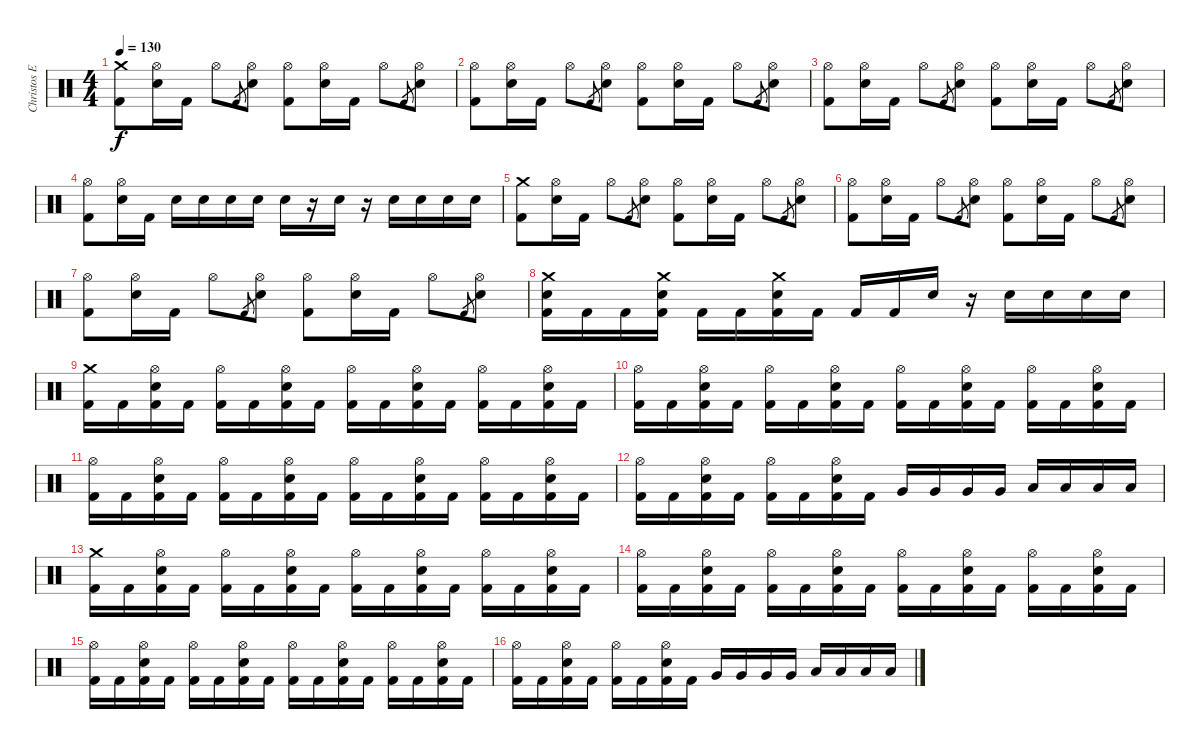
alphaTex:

\track ("Christos Efthimiadis" "Christos E") {instrument percussion}
\staff {score}
\articulation defaults
\ts (4 4)
\tempo 130
\clef neutral
\ks c
("Crash medium (hit)" "Kick (hit) 2").8{dy f} ("Hi-Hat (open)" "Snare (hit) 2").16 "Kick (hit) 2".16 "Hi-Hat (open)".8 "Kick (hit) 2".8{gr} ("Hi-Hat (open)" "Snare (hit) 2").8 ("Hi-Hat (open)" "Kick (hit) 2").8 ("Hi-Hat (open)" "Snare (hit) 2").16 "Kick (hit) 2".16 "Hi-Hat (open)".8 "Kick (hit) 2".8{gr} ("Hi-Hat (open)" "Snare (hit) 2").8 |
("Hi-Hat (open)" "Kick (hit) 2").8 ("Hi-Hat (open)" "Snare (hit) 2").16 "Kick (hit) 2".16 "Hi-Hat (open)".8 "Kick (hit) 2".8{gr} ("Hi-Hat (open)" "Snare (hit) 2").8 ("Hi-Hat (open)" "Kick (hit) 2").8 ("Hi-Hat (open)" "Snare (hit) 2").16 "Kick (hit) 2".16 "Hi-Hat (open)".8 "Kick (hit) 2".8{gr} ("Hi-Hat (open)" "Snare (hit) 2").8 |
("Hi-Hat (open)" "Kick (hit) 2").8 ("Hi-Hat (open)" "Snare (hit) 2").16 "Kick (hit) 2".16 "Hi-Hat (open)".8 "Kick (hit) 2".8{gr} ("Hi-Hat (open)" "Snare (hit) 2").8 ("Hi-Hat (open)" "Kick (hit) 2").8 ("Hi-Hat (open)" "Snare (hit) 2").16 "Kick (hit) 2".16 "Hi-Hat (open)".8 "Kick (hit) 2".8{gr} ("Hi-Hat (open)" "Snare (hit) 2").8 |
("Hi-Hat (open)" "Kick (hit) 2").8 ("Hi-Hat (open)" "Snare (hit) 2").16 "Kick (hit) 2".16 "Snare (hit) 2".16 "Snare (hit) 2".16 "Snare (hit) 2".16 "Snare (hit) 2".16 "Snare (hit) 2".16 r.16 "Snare (hit) 2".16 r.16 "Snare (hit) 2".16 "Snare (hit) 2".16 "Snare (hit) 2".16 "Snare (hit) 2".16 |
("Crash medium (hit)" "Kick (hit) 2").8 ("Hi-Hat (open)" "Snare (hit) 2").16 "Kick (hit) 2".16 "Hi-Hat (open)".8 "Kick (hit) 2".8{gr} ("Hi-Hat (open)" "Snare (hit) 2").8 ("Hi-Hat (open)" "Kick (hit) 2").8 ("Hi-Hat (open)" "Snare (hit) 2").16 "Kick (hit) 2".16 "Hi-Hat (open)".8 "Kick (hit) 2".8{gr} ("Hi-Hat (open)" "Snare (hit) 2").8 |
("Hi-Hat (open)" "Kick (hit) 2").8 ("Hi-Hat (open)" "Snare (hit) 2").16 "Kick (hit) 2".16 "Hi-Hat (open)".8 "Kick (hit) 2".8{gr} ("Hi-Hat (open)" "Snare (hit) 2").8 ("Hi-Hat (open)" "Kick (hit) 2").8 ("Hi-Hat (open)" "Snare (hit) 2").16 "Kick (hit) 2".16 "Hi-Hat (open)".8 "Kick (hit) 2".8{gr} ("Hi-Hat (open)" "Snare (hit) 2").8 |
("Hi-Hat (open)" "Kick (hit) 2").8 ("Hi-Hat (open)" "Snare (hit) 2").16 "Kick (hit) 2".16 "Hi-Hat (open)".8 "Kick (hit) 2".8{gr} ("Hi-Hat (open)" "Snare (hit) 2").8 ("Hi-Hat (open)" "Kick (hit) 2").8 ("Hi-Hat (open)" "Snare (hit) 2").16 "Kick (hit) 2".16 "Hi-Hat (open)".8 "Kick (hit) 2".8{gr} ("Hi-Hat (open)" "Snare (hit) 2").8 |
("Crash medium (hit)" "Snare (hit) 2" "Kick (hit) 2").16 "Kick (hit) 2".16 "Kick (hit) 2".16 ("Crash medium (hit)" "Snare (hit) 2" "Kick (hit) 2").16 "Kick (hit) 2".16 "Kick (hit) 2".16 ("Crash medium (hit)" "Snare (hit) 2" "Kick (hit) 2").16 "Kick (hit) 2".16 "Kick (hit) 2".16 "Kick (hit) 2".16 "Snare (hit) 2".16 r.16 "Snare (hit) 2".16 "Snare (hit) 2".16 "Snare (hit) 2".16 "Snare (hit) 2".16 |
("Crash medium (hit)" "Kick (hit) 2").16 "Kick (hit) 2".16 ("Snare (hit) 2" "Hi-Hat (open)" "Kick (hit) 2").16 "Kick (hit) 2".16 ("Hi-Hat (open)" "Kick (hit) 2").16 "Kick (hit) 2".16 ("Snare (hit) 2" "Hi-Hat (open)" "Kick (hit) 2").16 "Kick (hit) 2".16 ("Hi-Hat (open)" "Kick (hit) 2").16 "Kick (hit) 2".16 ("Snare (hit) 2" "Hi-Hat (open)" "Kick (hit) 2").16 "Kick (hit) 2".16 ("Hi-Hat (open)" "Kick (hit) 2").16 "Kick (hit) 2".16 ("Snare (hit) 2" "Hi-Hat (open)" "Kick (hit) 2").16 "Kick (hit) 2".16 |
("Hi-Hat (open)" "Kick (hit) 2").16 "Kick (hit) 2".16 ("Snare (hit) 2" "Hi-Hat (open)" "Kick (hit) 2").16 "Kick (hit) 2".16 ("Hi-Hat (open)" "Kick (hit) 2").16 "Kick (hit) 2".16 ("Snare (hit) 2" "Hi-Hat (open)" "Kick (hit) 2").16 "Kick (hit) 2".16 ("Hi-Hat (open)" "Kick (hit) 2").16 "Kick (hit) 2".16 ("Snare (hit) 2" "Hi-Hat (open)" "Kick (hit) 2").16 "Kick (hit) 2".16 ("Hi-Hat (open)" "Kick (hit) 2").16 "Kick (hit) 2".16 ("Snare (hit) 2" "Hi-Hat (open)" "Kick (hit) 2").16 "Kick (hit) 2".16 |
("Hi-Hat (open)" "Kick (hit) 2").16 "Kick (hit) 2".16 ("Snare (hit) 2" "Hi-Hat (open)" "Kick (hit) 2").16 "Kick (hit) 2".16 ("Hi-Hat (open)" "Kick (hit) 2").16 "Kick (hit) 2".16 ("Snare (hit) 2" "Hi-Hat (open)" "Kick (hit) 2").16 "Kick (hit) 2".16 ("Hi-Hat (open)" "Kick (hit) 2").16 "Kick (hit) 2".16 ("Snare (hit) 2" "Hi-Hat (open)" "Kick (hit) 2").16 "Kick (hit) 2".16 ("Hi-Hat (open)" "Kick (hit) 2").16 "Kick (hit) 2".16 ("Snare (hit) 2" "Hi-Hat (open)" "Kick (hit) 2").16 "Kick (hit) 2".16 |
("Hi-Hat (open)" "Kick (hit) 2").16 "Kick (hit) 2".16 ("Snare (hit) 2" "Hi-Hat (open)" "Kick (hit) 2").16 "Kick (hit) 2".16 ("Hi-Hat (open)" "Kick (hit) 2").16 "Kick (hit) 2".16 ("Snare (hit) 2" "Hi-Hat (open)" "Kick (hit) 2").16 "Kick (hit) 2".16 "Very Low Tom (hit)".16 "Very Low Tom (hit)".16 "Very Low Tom (hit)".16 "Very Low Tom (hit)".16 "Low Floor Tom (hit)".16 "Low Floor Tom (hit)".16 "Low Floor Tom (hit)".16 "Low Floor Tom (hit)".16 |
("Crash medium (hit)" "Kick (hit) 2").16 "Kick (hit) 2".16 ("Snare (hit) 2" "Hi-Hat (open)" "Kick (hit) 2").16 "Kick (hit) 2".16 ("Hi-Hat (open)" "Kick (hit) 2").16 "Kick (hit) 2".16 ("Snare (hit) 2" "Hi-Hat (open)" "Kick (hit) 2").16 "Kick (hit) 2".16 ("Hi-Hat (open)" "Kick (hit) 2").16 "Kick (hit) 2".16 ("Snare (hit) 2" "Hi-Hat (open)" "Kick (hit) 2").16 "Kick (hit) 2".16 ("Hi-Hat (open)" "Kick (hit) 2").16 "Kick (hit) 2".16 ("Snare (hit) 2" "Hi-Hat (open)" "Kick (hit) 2").16 "Kick (hit) 2".16 |
("Hi-Hat (open)" "Kick (hit) 2").16 "Kick (hit) 2".16 ("Snare (hit) 2" "Hi-Hat (open)" "Kick (hit) 2").16 "Kick (hit) 2".16 ("Hi-Hat (open)" "Kick (hit) 2").16 "Kick (hit) 2".16 ("Snare (hit) 2" "Hi-Hat (open)" "Kick (hit) 2").16 "Kick (hit) 2".16 ("Hi-Hat (open)" "Kick (hit) 2").16 "Kick (hit) 2".16 ("Snare (hit) 2" "Hi-Hat (open)" "Kick (hit) 2").16 "Kick (hit) 2".16 ("Hi-Hat (open)" "Kick (hit) 2").16 "Kick (hit) 2".16 ("Snare (hit) 2" "Hi-Hat (open)" "Kick (hit) 2").16 "Kick (hit) 2".16 |
("Hi-Hat (open)" "Kick (hit) 2").16 "Kick (hit) 2".16 ("Snare (hit) 2" "Hi-Hat (open)" "Kick (hit) 2").16 "Kick (hit) 2".16 ("Hi-Hat (open)" "Kick (hit) 2").16 "Kick (hit) 2".16 ("Snare (hit) 2" "Hi-Hat (open)" "Kick (hit) 2").16 "Kick (hit) 2".16 ("Hi-Hat (open)" "Kick (hit) 2").16 "Kick (hit) 2".16 ("Snare (hit) 2" "Hi-Hat (open)" "Kick (hit) 2").16 "Kick (hit) 2".16 ("Hi-Hat (open)" "Kick (hit) 2").16 "Kick (hit) 2".16 ("Snare (hit) 2" "Hi-Hat (open)" "Kick (hit) 2").16 "Kick (hit) 2".16 |
("Hi-Hat (open)" "Kick (hit) 2").16 "Kick (hit) 2".16 ("Snare (hit) 2" "Hi-Hat (open)" "Kick (hit) 2").16 "Kick (hit) 2".16 ("Hi-Hat (open)" "Kick (hit) 2").16 "Kick (hit) 2".16 ("Snare (hit) 2" "Hi-Hat (open)" "Kick (hit) 2").16 "Kick (hit) 2".16 "Very Low Tom (hit)".16 "Very Low Tom (hit)".16 "Very Low Tom (hit)".16 "Very Low Tom (hit)".16 "Low Floor Tom (hit)".16 "Low Floor Tom (hit)".16 "Low Floor Tom (hit)".16 "Low Floor Tom (hit)".16
